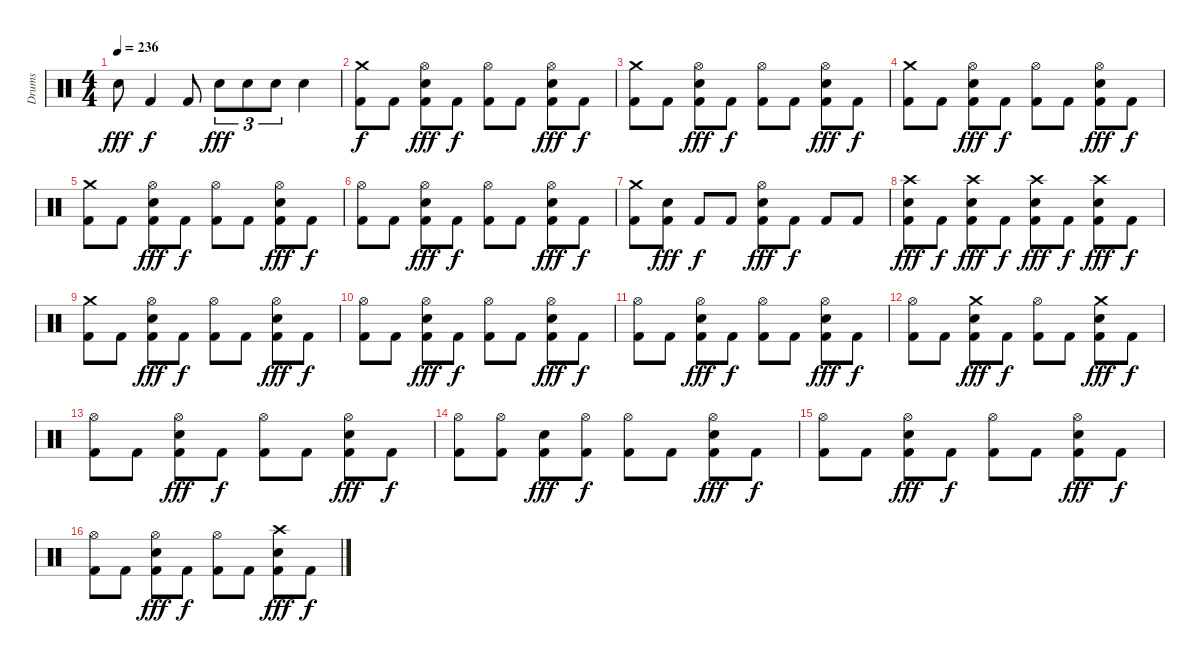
\track ("Drums" "Drums") {instrument percussion}
\staff {score}
\articulation defaults
\ts (4 4)
\tempo 236
\clef neutral
\ks c "Electric Snare (hit)".8{dy fff} "Kick (hit) 2".4{dy f} "Kick (hit) 2".8 "Electric Snare (hit)".8{tu (3 2) dy fff} "Electric Snare (hit)".8{tu (3 2)} "Electric Snare (hit)".8{tu (3 2)} "Electric Snare (hit)".4
|
("Crash medium (hit)" "Kick (hit) 2").8{dy f} "Kick (hit) 2".8 ("Hi-Hat (open)" "Kick (hit) 2" "Electric Snare (hit)").8{dy fff} "Kick (hit) 2".8{dy f} ("Hi-Hat (open)" "Kick (hit) 2").8 "Kick (hit) 2".8 ("Hi-Hat (open)" "Kick (hit) 2" "Electric Snare (hit)").8{dy fff} "Kick (hit) 2".8{dy f} |
("Crash medium (hit)" "Kick (hit) 2").8 "Kick (hit) 2".8 ("Hi-Hat (open)" "Kick (hit) 2" "Electric Snare (hit)").8{dy fff} "Kick (hit) 2".8{dy f} ("Hi-Hat (open)" "Kick (hit) 2").8 "Kick (hit) 2".8 ("Hi-Hat (open)" "Kick (hit) 2" "Electric Snare (hit)").8{dy fff} "Kick (hit) 2".8{dy f} |
("Crash medium (hit)" "Kick (hit) 2").8 "Kick (hit) 2".8 ("Hi-Hat (open)" "Kick (hit) 2" "Electric Snare (hit)").8{dy fff} "Kick (hit) 2".8{dy f} ("Hi-Hat (open)" "Kick (hit) 2").8 "Kick (hit) 2".8 ("Hi-Hat (open)" "Kick (hit) 2" "Electric Snare (hit)").8{dy fff} "Kick (hit) 2".8{dy f} |
("Crash medium (hit)" "Kick (hit) 2").8 "Kick (hit) 2".8 ("Hi-Hat (open)" "Kick (hit) 2" "Electric Snare (hit)").8{dy fff} "Kick (hit) 2".8{dy f} ("Hi-Hat (open)" "Kick (hit) 2").8 "Kick (hit) 2".8 ("Hi-Hat (open)" "Kick (hit) 2" "Electric Snare (hit)").8{dy fff} "Kick (hit) 2".8{dy f} |
("Hi-Hat (open)" "Kick (hit) 2").8 "Kick (hit) 2".8 ("Hi-Hat (open)" "Kick (hit) 2" "Electric Snare (hit)").8{dy fff} "Kick (hit) 2".8{dy f} ("Hi-Hat (open)" "Kick (hit) 2").8 "Kick (hit) 2".8 ("Hi-Hat (open)" "Kick (hit) 2" "Electric Snare (hit)").8{dy fff} "Kick (hit) 2".8{dy f} |
("Crash medium (hit)" "Kick (hit) 2").8 ("Kick (hit) 2" "Electric Snare (hit)").8{dy fff} "Kick (hit) 2".8{dy f} "Kick (hit) 2".8 ("Hi-Hat (open)" "Kick (hit) 2" "Electric Snare (hit)").8{dy fff} "Kick (hit) 2".8{dy f} "Kick (hit) 2".8 "Kick (hit) 2".8 |
("Crash high (hit)" "Kick (hit) 2" "Electric Snare (hit)").8{dy fff} "Kick (hit) 2".8{dy f} ("Crash high (hit)" "Kick (hit) 2" "Electric Snare (hit)").8{dy fff} "Kick (hit) 2".8{dy f} ("Crash high (hit)" "Kick (hit) 2" "Electric Snare (hit)").8{dy fff} "Kick (hit) 2".8{dy f} ("Crash high (hit)" "Kick (hit) 2" "Electric Snare (hit)").8{dy fff} "Kick (hit) 2".8{dy f} |
("Crash medium (hit)" "Kick (hit) 2").8 "Kick (hit) 2".8 ("Hi-Hat (open)" "Kick (hit) 2" "Electric Snare (hit)").8{dy fff} "Kick (hit) 2".8{dy f} ("Hi-Hat (open)" "Kick (hit) 2").8 "Kick (hit) 2".8 ("Hi-Hat (open)" "Kick (hit) 2" "Electric Snare (hit)").8{dy fff} "Kick (hit) 2".8{dy f} |
("Hi-Hat (open)" "Kick (hit) 2").8 "Kick (hit) 2".8 ("Hi-Hat (open)" "Kick (hit) 2" "Electric Snare (hit)").8{dy fff} "Kick (hit) 2".8{dy f} ("Hi-Hat (open)" "Kick (hit) 2").8 "Kick (hit) 2".8 ("Hi-Hat (open)" "Kick (hit) 2" "Electric Snare (hit)").8{dy fff} "Kick (hit) 2".8{dy f} |
("Hi-Hat (open)" "Kick (hit) 2").8 "Kick (hit) 2".8 ("Hi-Hat (open)" "Kick (hit) 2" "Electric Snare (hit)").8{dy fff} "Kick (hit) 2".8{dy f} ("Hi-Hat (open)" "Kick (hit) 2").8 "Kick (hit) 2".8 ("Hi-Hat (open)" "Kick (hit) 2" "Electric Snare (hit)").8{dy fff} "Kick (hit) 2".8{dy f} |
("Hi-Hat (open)" "Kick (hit) 2").8 "Kick (hit) 2".8 ("Crash medium (hit)" "Kick (hit) 2" "Electric Snare (hit)").8{dy fff} "Kick (hit) 2".8{dy f} ("Hi-Hat (open)" "Kick (hit) 2").8 "Kick (hit) 2".8 ("Crash medium (hit)" "Kick (hit) 2" "Electric Snare (hit)").8{dy fff} "Kick (hit) 2".8{dy f} |
("Hi-Hat (open)" "Kick (hit) 2").8 "Kick (hit) 2".8 ("Hi-Hat (open)" "Kick (hit) 2" "Electric Snare (hit)").8{dy fff} "Kick (hit) 2".8{dy f} ("Hi-Hat (open)" "Kick (hit) 2").8 "Kick (hit) 2".8 ("Hi-Hat (open)" "Kick (hit) 2" "Electric Snare (hit)").8{dy fff} "Kick (hit) 2".8{dy f} |
("Hi-Hat (open)" "Kick (hit) 2").8 ("Hi-Hat (open)" "Kick (hit) 2").8 ("Kick (hit) 2" "Electric Snare (hit)").8{dy fff} ("Hi-Hat (open)" "Kick (hit) 2").8{dy f} ("Hi-Hat (open)" "Kick (hit) 2").8 "Kick (hit) 2".8 ("Hi-Hat (open)" "Kick (hit) 2" "Electric Snare (hit)").8{dy fff} "Kick (hit) 2".8{dy f} |
("Hi-Hat (open)" "Kick (hit) 2").8 "Kick (hit) 2".8 ("Hi-Hat (open)" "Kick (hit) 2" "Electric Snare (hit)").8{dy fff} "Kick (hit) 2".8{dy f} ("Hi-Hat (open)" "Kick (hit) 2").8 "Kick (hit) 2".8 ("Hi-Hat (open)" "Kick (hit) 2" "Electric Snare (hit)").8{dy fff} "Kick (hit) 2".8{dy f} |
("Hi-Hat (open)" "Kick (hit) 2").8 "Kick (hit) 2".8 ("Hi-Hat (open)" "Kick (hit) 2" "Electric Snare (hit)").8{dy fff} "Kick (hit) 2".8{dy f} ("Hi-Hat (open)" "Kick (hit) 2").8 "Kick (hit) 2".8 ("Crash high (hit)" "Kick (hit) 2" "Electric Snare (hit)").8{dy fff} "Kick (hit) 2".8{dy f}
